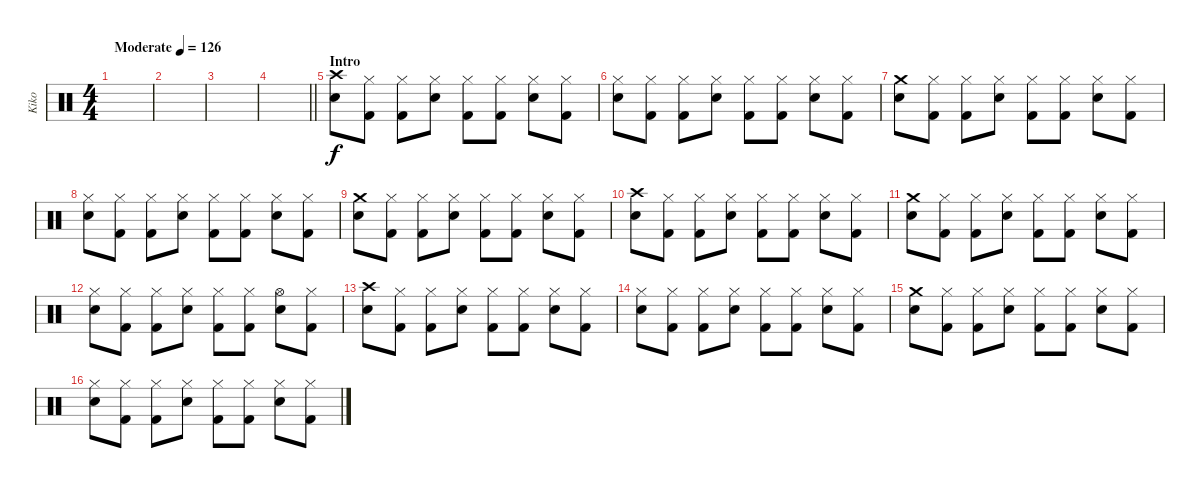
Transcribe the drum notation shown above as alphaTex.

\track ("Kiko" "Kiko") {instrument percussion}
\staff {score}
\articulation defaults
\ts (4 4)
\tempo (126 "Moderate")
\clef neutral
\ks c
|
|
|
\barLineRight lightlight
|
\section ("" "Intro")
("Crash high (hit)" "Electric Snare (hit)").8 ("Hi-Hat (closed)" "Kick (hit) 2").8 ("Hi-Hat (closed)" "Kick (hit) 2").8 ("Hi-Hat (closed)" "Electric Snare (hit)").8 ("Hi-Hat (closed)" "Kick (hit) 2").8 ("Hi-Hat (closed)" "Kick (hit) 2").8 ("Hi-Hat (closed)" "Electric Snare (hit)").8 ("Hi-Hat (closed)" "Kick (hit) 2").8 |
("Hi-Hat (closed)" "Electric Snare (hit)").8 ("Hi-Hat (closed)" "Kick (hit) 2").8 ("Hi-Hat (closed)" "Kick (hit) 2").8 ("Hi-Hat (closed)" "Electric Snare (hit)").8 ("Hi-Hat (closed)" "Kick (hit) 2").8 ("Hi-Hat (closed)" "Kick (hit) 2").8 ("Hi-Hat (closed)" "Electric Snare (hit)").8 ("Hi-Hat (closed)" "Kick (hit) 2").8 |
("Crash medium (hit)" "Electric Snare (hit)").8 ("Hi-Hat (closed)" "Kick (hit) 2").8 ("Hi-Hat (closed)" "Kick (hit) 2").8 ("Hi-Hat (closed)" "Electric Snare (hit)").8 ("Hi-Hat (closed)" "Kick (hit) 2").8 ("Hi-Hat (closed)" "Kick (hit) 2").8 ("Hi-Hat (closed)" "Electric Snare (hit)").8 ("Hi-Hat (closed)" "Kick (hit) 2").8 |
("Hi-Hat (closed)" "Electric Snare (hit)").8 ("Hi-Hat (closed)" "Kick (hit) 2").8 ("Hi-Hat (closed)" "Kick (hit) 2").8 ("Hi-Hat (closed)" "Electric Snare (hit)").8 ("Hi-Hat (closed)" "Kick (hit) 2").8 ("Hi-Hat (closed)" "Kick (hit) 2").8 ("Hi-Hat (closed)" "Electric Snare (hit)").8 ("Hi-Hat (closed)" "Kick (hit) 2").8 |
("Crash medium (hit)" "Electric Snare (hit)").8 ("Hi-Hat (closed)" "Kick (hit) 2").8 ("Hi-Hat (closed)" "Kick (hit) 2").8 ("Hi-Hat (closed)" "Electric Snare (hit)").8 ("Hi-Hat (closed)" "Kick (hit) 2").8 ("Hi-Hat (closed)" "Kick (hit) 2").8 ("Hi-Hat (closed)" "Electric Snare (hit)").8 ("Hi-Hat (closed)" "Kick (hit) 2").8 |
("Crash high (hit)" "Electric Snare (hit)").8 ("Hi-Hat (closed)" "Kick (hit) 2").8 ("Hi-Hat (closed)" "Kick (hit) 2").8 ("Hi-Hat (closed)" "Electric Snare (hit)").8 ("Hi-Hat (closed)" "Kick (hit) 2").8 ("Hi-Hat (closed)" "Kick (hit) 2").8 ("Hi-Hat (closed)" "Electric Snare (hit)").8 ("Hi-Hat (closed)" "Kick (hit) 2").8 |
("Crash medium (hit)" "Electric Snare (hit)").8 ("Hi-Hat (closed)" "Kick (hit) 2").8 ("Hi-Hat (closed)" "Kick (hit) 2").8 ("Hi-Hat (closed)" "Electric Snare (hit)").8 ("Hi-Hat (closed)" "Kick (hit) 2").8 ("Hi-Hat (closed)" "Kick (hit) 2").8 ("Hi-Hat (closed)" "Electric Snare (hit)").8 ("Hi-Hat (closed)" "Kick (hit) 2").8 |
("Hi-Hat (closed)" "Electric Snare (hit)").8 ("Hi-Hat (closed)" "Kick (hit) 2").8 ("Hi-Hat (closed)" "Kick (hit) 2").8 ("Hi-Hat (closed)" "Electric Snare (hit)").8 ("Hi-Hat (closed)" "Kick (hit) 2").8 ("Hi-Hat (closed)" "Kick (hit) 2").8 ("Hi-Hat (open)" "Electric Snare (hit)").8 ("Hi-Hat (closed)" "Kick (hit) 2").8 |
("Crash high (hit)" "Electric Snare (hit)").8 ("Hi-Hat (closed)" "Kick (hit) 2").8 ("Hi-Hat (closed)" "Kick (hit) 2").8 ("Hi-Hat (closed)" "Electric Snare (hit)").8 ("Hi-Hat (closed)" "Kick (hit) 2").8 ("Hi-Hat (closed)" "Kick (hit) 2").8 ("Hi-Hat (closed)" "Electric Snare (hit)").8 ("Hi-Hat (closed)" "Kick (hit) 2").8 |
("Hi-Hat (closed)" "Electric Snare (hit)").8 ("Hi-Hat (closed)" "Kick (hit) 2").8 ("Hi-Hat (closed)" "Kick (hit) 2").8 ("Hi-Hat (closed)" "Electric Snare (hit)").8 ("Hi-Hat (closed)" "Kick (hit) 2").8 ("Hi-Hat (closed)" "Kick (hit) 2").8 ("Hi-Hat (closed)" "Electric Snare (hit)").8 ("Hi-Hat (closed)" "Kick (hit) 2").8 |
("Crash medium (hit)" "Electric Snare (hit)").8 ("Hi-Hat (closed)" "Kick (hit) 2").8 ("Hi-Hat (closed)" "Kick (hit) 2").8 ("Hi-Hat (closed)" "Electric Snare (hit)").8 ("Hi-Hat (closed)" "Kick (hit) 2").8 ("Hi-Hat (closed)" "Kick (hit) 2").8 ("Hi-Hat (closed)" "Electric Snare (hit)").8 ("Hi-Hat (closed)" "Kick (hit) 2").8 |
("Hi-Hat (closed)" "Electric Snare (hit)").8 ("Hi-Hat (closed)" "Kick (hit) 2").8 ("Hi-Hat (closed)" "Kick (hit) 2").8 ("Hi-Hat (closed)" "Electric Snare (hit)").8 ("Hi-Hat (closed)" "Kick (hit) 2").8 ("Hi-Hat (closed)" "Kick (hit) 2").8 ("Hi-Hat (closed)" "Electric Snare (hit)").8 ("Hi-Hat (closed)" "Kick (hit) 2").8
